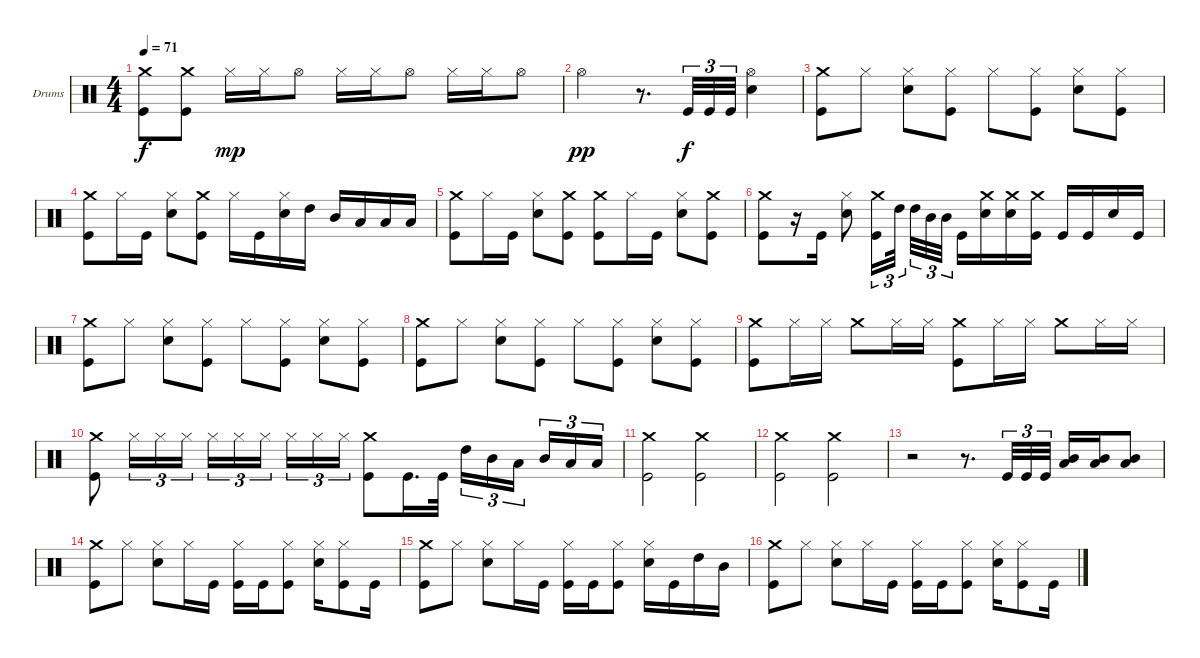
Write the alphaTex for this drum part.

\defaultSystemsLayout 4
\bracketExtendMode groupsimilarinstruments
\firstSystemTrackNameOrientation horizontal
\otherSystemsTrackNameOrientation horizontal
\track ("Drumkit" "Drums") {instrument percussion}
\staff {score}
\articulation defaults
\ts (4 4)
\tempo 71
\clef neutral
\ks c
("Crash medium (hit)" "Kick (hit)").8{dy f} ("Crash medium (hit)" "Kick (hit)").8 "Hi-Hat (closed)".16{dy mp} "Hi-Hat (closed)".16 "Hi-Hat (open)".8 "Hi-Hat (closed)".16 "Hi-Hat (closed)".16 "Hi-Hat (open)".8 "Hi-Hat (closed)".16 "Hi-Hat (closed)".16 "Hi-Hat (open)".8 |
"Hi-Hat (open)".2{dy pp} r.8{d} "Kick (hit)".32{tu (3 2) dy f} "Kick (hit)".32{tu (3 2)} "Kick (hit)".32{tu (3 2)} ("Hi-Hat (open)" "Snare (hit) 2").4 |
("Crash medium (hit)" "Kick (hit)").8 "Hi-Hat (closed)".8 ("Hi-Hat (closed)" "Snare (hit) 2").8 ("Hi-Hat (closed)" "Kick (hit)").8 "Hi-Hat (closed)".8 ("Hi-Hat (closed)" "Kick (hit)").8 ("Hi-Hat (closed)" "Snare (hit) 2").8 ("Hi-Hat (closed)" "Kick (hit)").8 |
("Kick (hit)" "Crash medium (hit)").8 "Hi-Hat (closed)".16 "Kick (hit)".16 ("Hi-Hat (closed)" "Snare (hit) 2").8 ("Crash medium (hit)" "Kick (hit)").8 "Hi-Hat (closed)".16 "Kick (hit)".16 ("Hi-Hat (closed)" "Snare (hit) 2").16 "High Tom (hit)".16 "Mid Tom (hit)".16 "Low Tom (hit)".16 "Low Tom (hit)".16 "Low Tom (hit)".16 |
("Crash medium (hit)" "Kick (hit)").8 "Hi-Hat (closed)".16 "Kick (hit)".16 ("Hi-Hat (closed)" "Snare (hit) 2").8 ("Crash medium (hit)" "Kick (hit)").8 ("Kick (hit)" "Crash medium (hit)").8 "Hi-Hat (closed)".16 "Kick (hit)".16 ("Snare (hit) 2" "Hi-Hat (closed)").8 ("Crash medium (hit)" "Kick (hit)").8 |
("Kick (hit)" "Crash medium (hit)").8 r.16 "Kick (hit)".16 ("Snare (hit) 2" "Hi-Hat (closed)").8 ("Crash medium (hit)" "Kick (hit)").16{tu (3 2)} "High Tom (hit)".32{tu (3 2)} "High Tom (hit)".32{tu (3 2)} "Mid Tom (hit)".32{tu (3 2)} "Mid Tom (hit)".32{tu (3 2)} "Kick (hit)".16 ("Snare (hit) 2" "Crash medium (hit)").16 ("Crash medium (hit)" "Snare (hit) 2").16 ("Crash medium (hit)" "Kick (hit)").16 "Kick (hit)".16 "Kick (hit)".16 "Snare (hit) 2".16 "Kick (hit)".16 |
("Kick (hit)" "Crash medium (hit)").8 "Hi-Hat (closed)".8 ("Hi-Hat (closed)" "Snare (hit) 2").8 ("Hi-Hat (closed)" "Kick (hit)").8 "Hi-Hat (closed)".8 ("Hi-Hat (closed)" "Kick (hit)").8 ("Hi-Hat (closed)" "Snare (hit) 2").8 ("Hi-Hat (closed)" "Kick (hit)").8 |
("Kick (hit)" "Crash medium (hit)").8 "Hi-Hat (closed)".8 ("Hi-Hat (closed)" "Snare (hit) 2").8 ("Hi-Hat (closed)" "Kick (hit)").8 "Hi-Hat (closed)".8 ("Hi-Hat (closed)" "Kick (hit)").8 ("Hi-Hat (closed)" "Snare (hit) 2").8 ("Hi-Hat (closed)" "Kick (hit)").8 |
("Crash medium (hit)" "Kick (hit)").8 "Hi-Hat (closed)".16 "Hi-Hat (closed)".16 "Crash medium (hit)".8 "Hi-Hat (closed)".16 "Hi-Hat (closed)".16 ("Crash medium (hit)" "Kick (hit)").8 "Hi-Hat (closed)".16 "Hi-Hat (closed)".16 "Crash medium (hit)".8 "Hi-Hat (closed)".16 "Hi-Hat (closed)".16 |
("Crash medium (hit)" "Kick (hit)").8 "Hi-Hat (closed)".16{tu (3 2)} "Hi-Hat (closed)".16{tu (3 2)} "Hi-Hat (closed)".16{tu (3 2)} "Hi-Hat (closed)".16{tu (3 2)} "Hi-Hat (closed)".16{tu (3 2)} "Hi-Hat (closed)".16{tu (3 2)} "Hi-Hat (closed)".16{tu (3 2)} "Hi-Hat (closed)".16{tu (3 2)} "Hi-Hat (closed)".16{tu (3 2)} ("Crash medium (hit)" "Kick (hit)").8 "Kick (hit)".16{d} "Kick (hit)".32 "High Tom (hit)".16{tu (3 2)} "Mid Tom (hit)".16{tu (3 2)} "Low Tom (hit)".16{tu (3 2)} "Mid Tom (hit)".16{tu (3 2)} "Low Tom (hit)".16{tu (3 2)} "Low Tom (hit)".16{tu (3 2)} |
("Crash medium (hit)" "Kick (hit)").2 ("Kick (hit)" "Crash medium (hit)").2 |
("Crash medium (hit)" "Kick (hit)").2 ("Crash medium (hit)" "Kick (hit)").2 |
r.2 r.8{d} "Kick (hit)".32{tu (3 2)} "Kick (hit)".32{tu (3 2)} "Kick (hit)".32{tu (3 2)} ("Mid Tom (hit)" "Low Tom (hit)").16 ("Low Tom (hit)" "Mid Tom (hit)").16 ("Low Tom (hit)" "Mid Tom (hit)").8 |
("Crash medium (hit)" "Kick (hit)").8 "Hi-Hat (closed)".8 ("Hi-Hat (closed)" "Snare (hit) 2").8 "Hi-Hat (closed)".16 "Kick (hit)".16 ("Kick (hit)" "Hi-Hat (closed)").16 "Kick (hit)".16 ("Hi-Hat (closed)" "Kick (hit)").8 ("Snare (hit) 2" "Hi-Hat (closed)").16 ("Hi-Hat (closed)" "Kick (hit)").8 "Kick (hit)".16 |
("Crash medium (hit)" "Kick (hit)").8 "Hi-Hat (closed)".8 ("Hi-Hat (closed)" "Snare (hit) 2").8 "Hi-Hat (closed)".16 "Kick (hit)".16 ("Kick (hit)" "Hi-Hat (closed)").16 "Kick (hit)".16 ("Hi-Hat (closed)" "Kick (hit)").8 ("Snare (hit) 2" "Hi-Hat (closed)").16 "Kick (hit)".16 "High Tom (hit)".16 "Mid Tom (hit)".16 |
("Crash medium (hit)" "Kick (hit)").8 "Hi-Hat (closed)".8 ("Hi-Hat (closed)" "Snare (hit) 2").8 "Hi-Hat (closed)".16 "Kick (hit)".16 ("Kick (hit)" "Hi-Hat (closed)").16 "Kick (hit)".16 ("Hi-Hat (closed)" "Kick (hit)").8 ("Snare (hit) 2" "Hi-Hat (closed)").16 ("Hi-Hat (closed)" "Kick (hit)").8 "Kick (hit)".16
